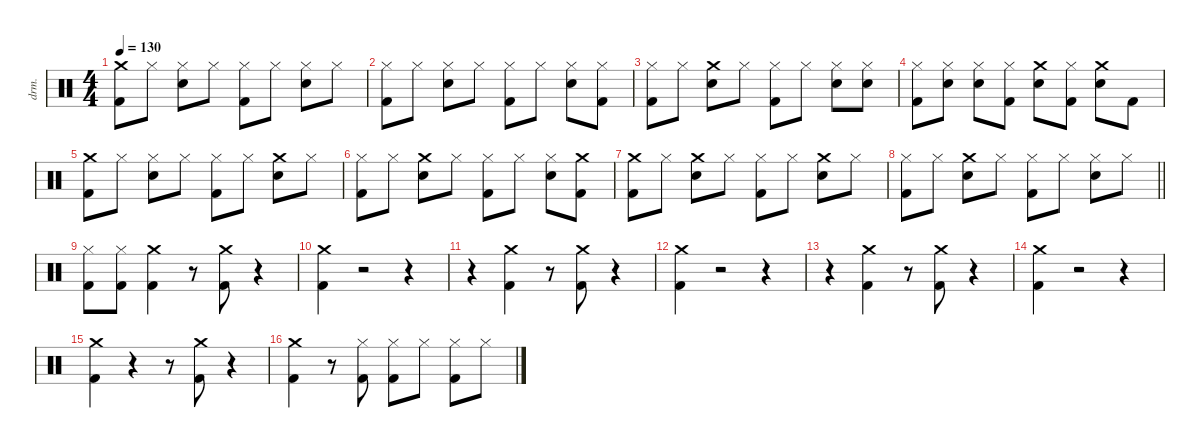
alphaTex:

\defaultSystemsLayout 4
\hideDynamics
\bracketExtendMode nobrackets
\otherSystemsTrackNameOrientation horizontal
\track ("Lars Ulrich (Drums)" "drm.") {instrument percussion}
\staff {score}
\articulation defaults
\ts (4 4)
\tempo 130
\clef neutral
\ks c
("Crash medium (hit)" "Kick (hit) 2").8{dy f beam Down} "Hi-Hat (closed)".8{beam Down} ("Snare (hit) 2" "Hi-Hat (closed)").8{beam Down} "Hi-Hat (closed)".8{beam Down} ("Kick (hit) 2" "Hi-Hat (closed)").8{beam Down} "Hi-Hat (closed)".8{beam Down} ("Snare (hit) 2" "Hi-Hat (closed)").8{beam Down} "Hi-Hat (closed)".8{beam Down} |
("Kick (hit) 2" "Hi-Hat (closed)").8{beam Down} "Hi-Hat (closed)".8{beam Down} ("Snare (hit) 2" "Hi-Hat (closed)").8{beam Down} "Hi-Hat (closed)".8{beam Down} ("Kick (hit) 2" "Hi-Hat (closed)").8{beam Down} "Hi-Hat (closed)".8{beam Down} ("Snare (hit) 2" "Hi-Hat (closed)").8{beam Down} ("Kick (hit) 2" "Hi-Hat (closed)").8{beam Down} |
("Kick (hit) 2" "Hi-Hat (closed)").8{beam Down} "Hi-Hat (closed)".8{beam Down} ("Crash medium (hit)" "Snare (hit) 2").8{beam Down} "Hi-Hat (closed)".8{beam Down} ("Kick (hit) 2" "Hi-Hat (closed)").8{beam Down} "Hi-Hat (closed)".8{beam Down} ("Snare (hit) 2" "Hi-Hat (closed)").8{beam Down} ("Snare (hit) 2" "Hi-Hat (closed)").8{beam Down} |
("Kick (hit) 2" "Hi-Hat (closed)").8{beam Down} ("Snare (hit) 2" "Hi-Hat (closed)").8{beam Down} ("Snare (hit) 2" "Hi-Hat (closed)").8{beam Down} ("Kick (hit) 2" "Hi-Hat (closed)").8{beam Down} ("Crash medium (hit)" "Snare (hit) 2").8{beam Down} ("Kick (hit) 2" "Hi-Hat (closed)").8{beam Down} ("Crash medium (hit)" "Snare (hit) 2").8{beam Down} "Kick (hit) 2".8{beam Down} |
("Crash medium (hit)" "Kick (hit) 2").8{beam Down} "Hi-Hat (closed)".8{beam Down} ("Snare (hit) 2" "Hi-Hat (closed)").8{beam Down} "Hi-Hat (closed)".8{beam Down} ("Kick (hit) 2" "Hi-Hat (closed)").8{beam Down} "Hi-Hat (closed)".8{beam Down} ("Crash medium (hit)" "Snare (hit) 2").8{beam Down} "Hi-Hat (closed)".8{beam Down} |
("Kick (hit) 2" "Hi-Hat (closed)").8{beam Down} "Hi-Hat (closed)".8{beam Down} ("Crash medium (hit)" "Snare (hit) 2").8{beam Down} "Hi-Hat (closed)".8{beam Down} ("Kick (hit) 2" "Hi-Hat (closed)").8{beam Down} "Hi-Hat (closed)".8{beam Down} ("Snare (hit) 2" "Hi-Hat (closed)").8{beam Down} ("Crash medium (hit)" "Kick (hit) 2").8{beam Down} |
("Crash medium (hit)" "Kick (hit) 2").8{beam Down} "Hi-Hat (closed)".8{beam Down} ("Crash medium (hit)" "Snare (hit) 2").8{beam Down} "Hi-Hat (closed)".8{beam Down} ("Kick (hit) 2" "Hi-Hat (closed)").8{beam Down} "Hi-Hat (closed)".8{beam Down} ("Crash medium (hit)" "Snare (hit) 2").8{beam Down} "Hi-Hat (closed)".8{beam Down} |
\barLineRight lightlight
("Hi-Hat (closed)" "Kick (hit) 2").8{beam Down} "Hi-Hat (closed)".8{beam Down} ("Crash medium (hit)" "Snare (hit) 2").8{beam Down} "Hi-Hat (closed)".8{beam Down} ("Hi-Hat (closed)" "Kick (hit) 2").8{beam Down} "Hi-Hat (closed)".8{beam Down} ("Snare (hit) 2" "Hi-Hat (closed)").8{beam Down} "Hi-Hat (closed)".8{beam Down} |
("Kick (hit) 2" "Hi-Hat (closed)").8{beam Down} ("Kick (hit) 2" "Hi-Hat (closed)").8{beam Down} ("Kick (hit) 2" "Crash medium (hit)").4{beam Down} r.8{beam Down} ("Kick (hit) 2" "Crash medium (hit)").8{beam Down} r.4{beam Down} |
("Crash medium (hit)" "Kick (hit) 2").4{beam Down} r.2{beam Down} r.4{beam Down} |
r.4{beam Down} ("Kick (hit) 2" "Crash medium (hit)").4{beam Down} r.8{beam Down} ("Kick (hit) 2" "Crash medium (hit)").8{beam Down} r.4{beam Down} |
("Crash medium (hit)" "Kick (hit) 2").4{beam Down} r.2{beam Down} r.4{beam Down} |
r.4{beam Down} ("Kick (hit) 2" "Crash medium (hit)").4{beam Down} r.8{beam Down} ("Kick (hit) 2" "Crash medium (hit)").8{beam Down} r.4{beam Down} |
("Kick (hit) 2" "Crash medium (hit)").4{beam Down} r.2{beam Down} r.4{beam Down} |
("Kick (hit) 2" "Crash medium (hit)").4{beam Down} r.4{beam Down} r.8{beam Down} ("Kick (hit) 2" "Crash medium (hit)").8{beam Down} r.4{beam Down} |
("Crash medium (hit)" "Kick (hit) 2").4{beam Down} r.8{beam Down} ("Hi-Hat (closed)" "Kick (hit) 2").8{beam Down} ("Hi-Hat (closed)" "Kick (hit) 2").8{beam Down} "Hi-Hat (closed)".8{beam Down} ("Hi-Hat (closed)" "Kick (hit) 2").8{beam Down} "Hi-Hat (closed)".8{beam Down}
